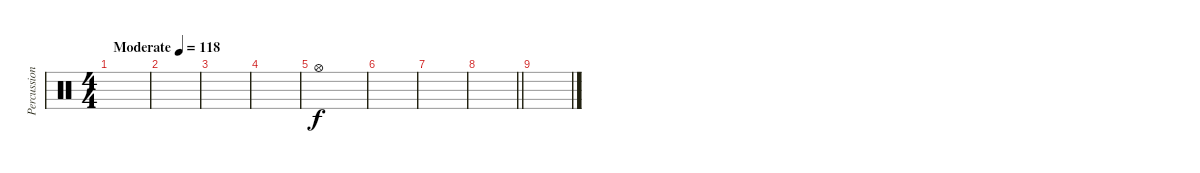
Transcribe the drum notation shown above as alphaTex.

\track ("Percussion" "Percussion") {instrument percussion}
\staff {score}
\articulation defaults
\ts (4 4)
\tempo (118 "Moderate")
\clef neutral
\ks c
|
|
|
|
"Hi-Hat (open)".1 |
|
|
\barLineRight lightlight
|
\section ("" "")
